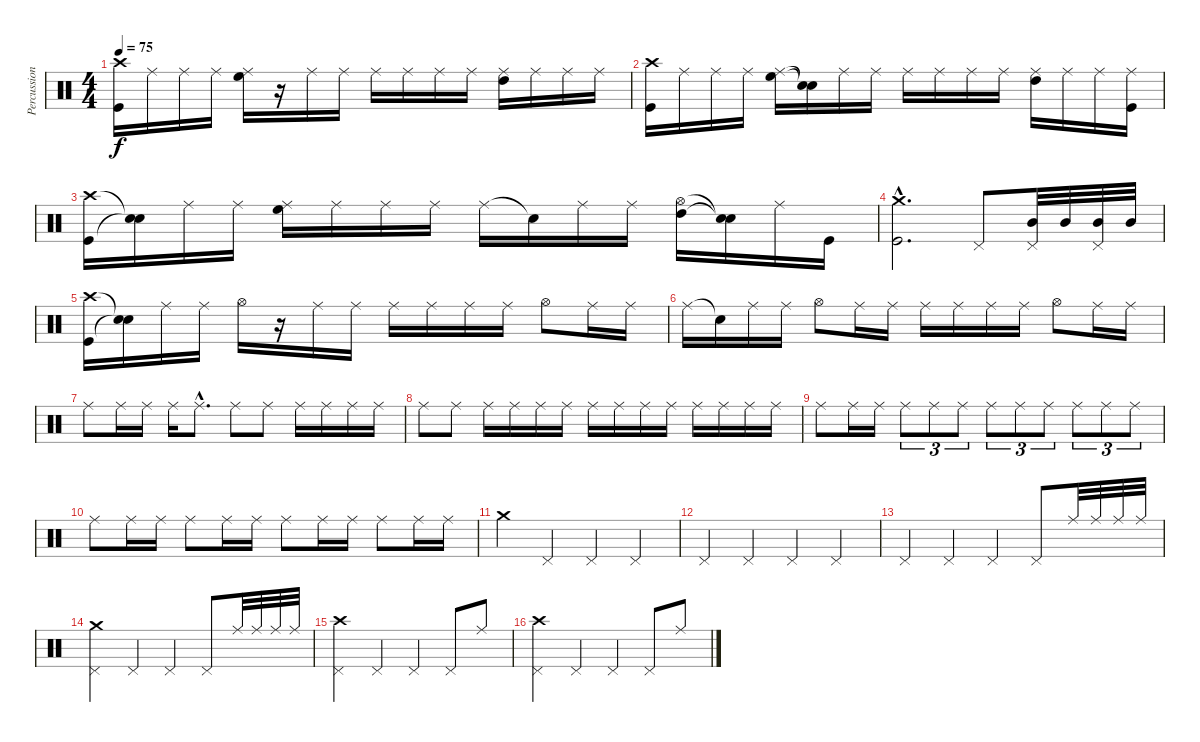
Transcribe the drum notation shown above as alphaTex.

\track ("Percussions" "Percussion") {instrument percussion}
\staff {score}
\articulation defaults
\ts (4 4)
\tempo 75
\clef neutral
\ks c
("Crash high (hit)" "Kick (hit)").16{dy f} "Ride (middle)".16 "Ride (middle)".16 "Ride (middle)".16 ("Ride (middle)" "High Floor Tom (hit)").16 r.16 "Ride (middle)".16 "Ride (middle)".16 "Ride (middle)".16 "Ride (middle)".16 "Ride (middle)".16 "Ride (middle)".16 ("Ride (middle)" "High Tom (hit)").16 "Ride (middle)".16 "Ride (middle)".16 "Ride (middle)".16 |
("Crash high (hit)" "Kick (hit)").16 "Ride (middle)".16 "Ride (middle)".16 "Ride (middle)".16 ("Ride (middle)" "High Floor Tom (hit)").16 ("Snare (hit)"{t} "Snare (hit)"{t}).16 "Ride (middle)".16 "Ride (middle)".16 "Ride (middle)".16 "Ride (middle)".16 "Ride (middle)".16 "Ride (middle)".16 ("Ride (middle)" "High Tom (hit)").16 "Ride (middle)".16 "Ride (middle)".16 ("Ride (middle)" "Kick (hit)").16 |
("Crash high (hit)" "Kick (hit)").16 ("Snare (hit)"{t} "Snare (hit)"{t}).16 "Ride (middle)".16 "Ride (middle)".16 ("Ride (middle)" "High Floor Tom (hit)").16 "Ride (middle)".16 "Ride (middle)".16 "Ride (middle)".16 "Ride (middle)".16 "Snare (hit)"{t}.16 "Ride (middle)".16 "Ride (middle)".16 ("Hi-Hat (open)" "High Tom (hit)").16 ("Snare (hit)"{t} "Snare (hit)"{t}).16 "Ride (middle)".16 "Kick (hit)".16 |
("Crash medium (hit)"{hac} "Kick (hit)"{hac}).2{d} "Pedal Hi-Hat (hit)".8 ("Mid Tom (hit)" "Pedal Hi-Hat (hit)").32 "Mid Tom (hit)".32 ("Mid Tom (hit)" "Pedal Hi-Hat (hit)").32 "Mid Tom (hit)".32 |
("Crash high (hit)" "Kick (hit)").16 ("Snare (hit)"{t} "Snare (hit)"{t}).16 "Ride (middle)".16 "Ride (middle)".16 "Hi-Hat (open)".16 r.16 "Ride (middle)".16 "Ride (middle)".16 "Ride (middle)".16 "Ride (middle)".16 "Ride (middle)".16 "Ride (middle)".16 "Hi-Hat (open)".8 "Ride (middle)".16 "Ride (middle)".16 |
"Ride (middle)".16 "Snare (hit)"{t}.16 "Ride (middle)".16 "Ride (middle)".16 "Hi-Hat (open)".8 "Ride (middle)".16 "Ride (middle)".16 "Ride (middle)".16 "Ride (middle)".16 "Ride (middle)".16 "Ride (middle)".16 "Hi-Hat (open)".8 "Ride (middle)".16 "Ride (middle)".16 |
"Ride (middle)".8 "Ride (middle)".16 "Ride (middle)".16 "Ride (middle)".16 "Ride (middle)"{hac}.8{d} "Ride (middle)".8 "Ride (middle)".8 "Ride (middle)".16 "Ride (middle)".16 "Ride (middle)".16 "Ride (middle)".16 |
"Ride (middle)".8 "Ride (middle)".8 "Ride (middle)".16 "Ride (middle)".16 "Ride (middle)".16 "Ride (middle)".16 "Ride (middle)".16 "Ride (middle)".16 "Ride (middle)".16 "Ride (middle)".16 "Ride (middle)".16 "Ride (middle)".16 "Ride (middle)".16 "Ride (middle)".16 |
"Ride (middle)".8 "Ride (middle)".16 "Ride (middle)".16 "Ride (middle)".8{tu (3 2)} "Ride (middle)".8{tu (3 2)} "Ride (middle)".8{tu (3 2)} "Ride (middle)".8{tu (3 2)} "Ride (middle)".8{tu (3 2)} "Ride (middle)".8{tu (3 2)} "Ride (middle)".8{tu (3 2)} "Ride (middle)".8{tu (3 2)} "Ride (middle)".8{tu (3 2)} |
"Ride (middle)".8 "Ride (middle)".16 "Ride (middle)".16 "Ride (middle)".8 "Ride (middle)".16 "Ride (middle)".16 "Ride (middle)".8 "Ride (middle)".16 "Ride (middle)".16 "Ride (middle)".8 "Ride (middle)".16 "Ride (middle)".16 |
"Crash medium (hit)".4 "Pedal Hi-Hat (hit)".4 "Pedal Hi-Hat (hit)".4 "Pedal Hi-Hat (hit)".4 |
"Pedal Hi-Hat (hit)".4 "Pedal Hi-Hat (hit)".4 "Pedal Hi-Hat (hit)".4 "Pedal Hi-Hat (hit)".4 |
"Pedal Hi-Hat (hit)".4 "Pedal Hi-Hat (hit)".4 "Pedal Hi-Hat (hit)".4 "Pedal Hi-Hat (hit)".8 "Ride (middle)".32 "Ride (middle)".32 "Ride (middle)".32 "Ride (middle)".32 |
("Crash medium (hit)" "Pedal Hi-Hat (hit)").4 "Pedal Hi-Hat (hit)".4 "Pedal Hi-Hat (hit)".4 "Pedal Hi-Hat (hit)".8 "Ride (middle)".32 "Ride (middle)".32 "Ride (middle)".32 "Ride (middle)".32 |
("Crash high (hit)" "Pedal Hi-Hat (hit)").4 "Pedal Hi-Hat (hit)".4 "Pedal Hi-Hat (hit)".4 "Pedal Hi-Hat (hit)".8 "Ride (middle)".8 |
("Crash high (hit)" "Pedal Hi-Hat (hit)").4 "Pedal Hi-Hat (hit)".4 "Pedal Hi-Hat (hit)".4 "Pedal Hi-Hat (hit)".8 "Ride (middle)".8
